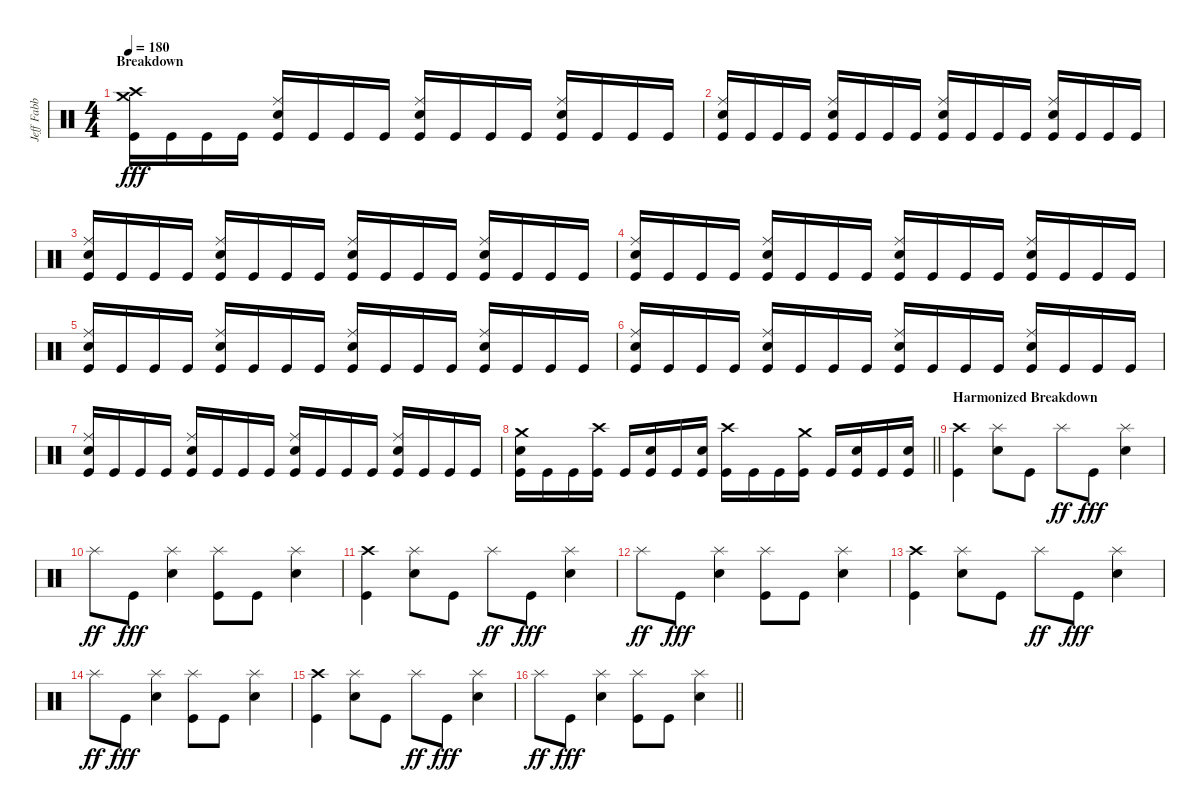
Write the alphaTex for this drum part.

\track ("Jeff Fabb (Drums)" "Jeff Fabb ") {instrument percussion}
\staff {score}
\articulation defaults
\ts (4 4)
\section ("" "Breakdown")
\tempo 180
\clef neutral
\ks c
("Crash high (hit)" "Crash medium (hit)" "Kick (hit)").16{dy fff} "Kick (hit)".16 "Kick (hit)".16 "Kick (hit)".16 ("Ride (middle)" "Electric Snare (hit)" "Kick (hit)").16 "Kick (hit)".16 "Kick (hit)".16 "Kick (hit)".16 ("Ride (middle)" "Electric Snare (hit)" "Kick (hit)").16 "Kick (hit)".16 "Kick (hit)".16 "Kick (hit)".16 ("Ride (middle)" "Electric Snare (hit)" "Kick (hit)").16 "Kick (hit)".16 "Kick (hit)".16 "Kick (hit)".16 |
("Ride (middle)" "Electric Snare (hit)" "Kick (hit)").16 "Kick (hit)".16 "Kick (hit)".16 "Kick (hit)".16 ("Ride (middle)" "Electric Snare (hit)" "Kick (hit)").16 "Kick (hit)".16 "Kick (hit)".16 "Kick (hit)".16 ("Ride (middle)" "Electric Snare (hit)" "Kick (hit)").16 "Kick (hit)".16 "Kick (hit)".16 "Kick (hit)".16 ("Ride (middle)" "Electric Snare (hit)" "Kick (hit)").16 "Kick (hit)".16 "Kick (hit)".16 "Kick (hit)".16 |
("Ride (middle)" "Electric Snare (hit)" "Kick (hit)").16 "Kick (hit)".16 "Kick (hit)".16 "Kick (hit)".16 ("Ride (middle)" "Electric Snare (hit)" "Kick (hit)").16 "Kick (hit)".16 "Kick (hit)".16 "Kick (hit)".16 ("Ride (middle)" "Electric Snare (hit)" "Kick (hit)").16 "Kick (hit)".16 "Kick (hit)".16 "Kick (hit)".16 ("Ride (middle)" "Electric Snare (hit)" "Kick (hit)").16 "Kick (hit)".16 "Kick (hit)".16 "Kick (hit)".16 |
("Ride (middle)" "Electric Snare (hit)" "Kick (hit)").16 "Kick (hit)".16 "Kick (hit)".16 "Kick (hit)".16 ("Ride (middle)" "Electric Snare (hit)" "Kick (hit)").16 "Kick (hit)".16 "Kick (hit)".16 "Kick (hit)".16 ("Ride (middle)" "Electric Snare (hit)" "Kick (hit)").16 "Kick (hit)".16 "Kick (hit)".16 "Kick (hit)".16 ("Ride (middle)" "Electric Snare (hit)" "Kick (hit)").16 "Kick (hit)".16 "Kick (hit)".16 "Kick (hit)".16 |
("Ride (middle)" "Electric Snare (hit)" "Kick (hit)").16 "Kick (hit)".16 "Kick (hit)".16 "Kick (hit)".16 ("Ride (middle)" "Electric Snare (hit)" "Kick (hit)").16 "Kick (hit)".16 "Kick (hit)".16 "Kick (hit)".16 ("Ride (middle)" "Electric Snare (hit)" "Kick (hit)").16 "Kick (hit)".16 "Kick (hit)".16 "Kick (hit)".16 ("Ride (middle)" "Electric Snare (hit)" "Kick (hit)").16 "Kick (hit)".16 "Kick (hit)".16 "Kick (hit)".16 |
("Ride (middle)" "Electric Snare (hit)" "Kick (hit)").16 "Kick (hit)".16 "Kick (hit)".16 "Kick (hit)".16 ("Ride (middle)" "Electric Snare (hit)" "Kick (hit)").16 "Kick (hit)".16 "Kick (hit)".16 "Kick (hit)".16 ("Ride (middle)" "Electric Snare (hit)" "Kick (hit)").16 "Kick (hit)".16 "Kick (hit)".16 "Kick (hit)".16 ("Ride (middle)" "Electric Snare (hit)" "Kick (hit)").16 "Kick (hit)".16 "Kick (hit)".16 "Kick (hit)".16 |
("Ride (middle)" "Electric Snare (hit)" "Kick (hit)").16 "Kick (hit)".16 "Kick (hit)".16 "Kick (hit)".16 ("Ride (middle)" "Electric Snare (hit)" "Kick (hit)").16 "Kick (hit)".16 "Kick (hit)".16 "Kick (hit)".16 ("Ride (middle)" "Electric Snare (hit)" "Kick (hit)").16 "Kick (hit)".16 "Kick (hit)".16 "Kick (hit)".16 ("Ride (middle)" "Electric Snare (hit)" "Kick (hit)").16 "Kick (hit)".16 "Kick (hit)".16 "Kick (hit)".16 |
\barLineRight lightlight
("Crash medium (hit)" "Electric Snare (hit)" "Kick (hit)").16 "Kick (hit)".16 "Kick (hit)".16 ("Crash high (hit)" "Kick (hit)").16 "Kick (hit)".16 ("Electric Snare (hit)" "Kick (hit)").16 "Kick (hit)".16 ("Electric Snare (hit)" "Kick (hit)").16 ("Crash high (hit)" "Kick (hit)").16 "Kick (hit)".16 "Kick (hit)".16 ("Crash medium (hit)" "Kick (hit)").16 "Kick (hit)".16 ("Electric Snare (hit)" "Kick (hit)").16 "Kick (hit)".16 ("Electric Snare (hit)" "Kick (hit)").16 |
\section ("" "Harmonized Breakdown")
("Crash high (hit)" "Kick (hit)").4 ("Splash (hit)" "Electric Snare (hit)").8 "Kick (hit)".8 "Splash (hit)".8{dy ff} "Kick (hit)".8{dy fff} ("Splash (hit)" "Electric Snare (hit)").4 |
"Splash (hit)".8{dy ff} "Kick (hit)".8{dy fff} ("Splash (hit)" "Electric Snare (hit)").4 ("Splash (hit)" "Kick (hit)").8 "Kick (hit)".8 ("Splash (hit)" "Electric Snare (hit)").4 |
("Crash high (hit)" "Kick (hit)").4 ("Splash (hit)" "Electric Snare (hit)").8 "Kick (hit)".8 "Splash (hit)".8{dy ff} "Kick (hit)".8{dy fff} ("Splash (hit)" "Electric Snare (hit)").4 |
"Splash (hit)".8{dy ff} "Kick (hit)".8{dy fff} ("Splash (hit)" "Electric Snare (hit)").4 ("Splash (hit)" "Kick (hit)").8 "Kick (hit)".8 ("Splash (hit)" "Electric Snare (hit)").4 |
("Crash high (hit)" "Kick (hit)").4 ("Splash (hit)" "Electric Snare (hit)").8 "Kick (hit)".8 "Splash (hit)".8{dy ff} "Kick (hit)".8{dy fff} ("Splash (hit)" "Electric Snare (hit)").4 |
"Splash (hit)".8{dy ff} "Kick (hit)".8{dy fff} ("Splash (hit)" "Electric Snare (hit)").4 ("Splash (hit)" "Kick (hit)").8 "Kick (hit)".8 ("Splash (hit)" "Electric Snare (hit)").4 |
("Crash high (hit)" "Kick (hit)").4 ("Splash (hit)" "Electric Snare (hit)").8 "Kick (hit)".8 "Splash (hit)".8{dy ff} "Kick (hit)".8{dy fff} ("Splash (hit)" "Electric Snare (hit)").4 |
\barLineRight lightlight "Splash (hit)".8{dy ff} "Kick (hit)".8{dy fff}
("Splash (hit)" "Electric Snare (hit)").4 ("Splash (hit)" "Kick (hit)").8 "Kick (hit)".8 ("Splash (hit)" "Electric Snare (hit)").4
